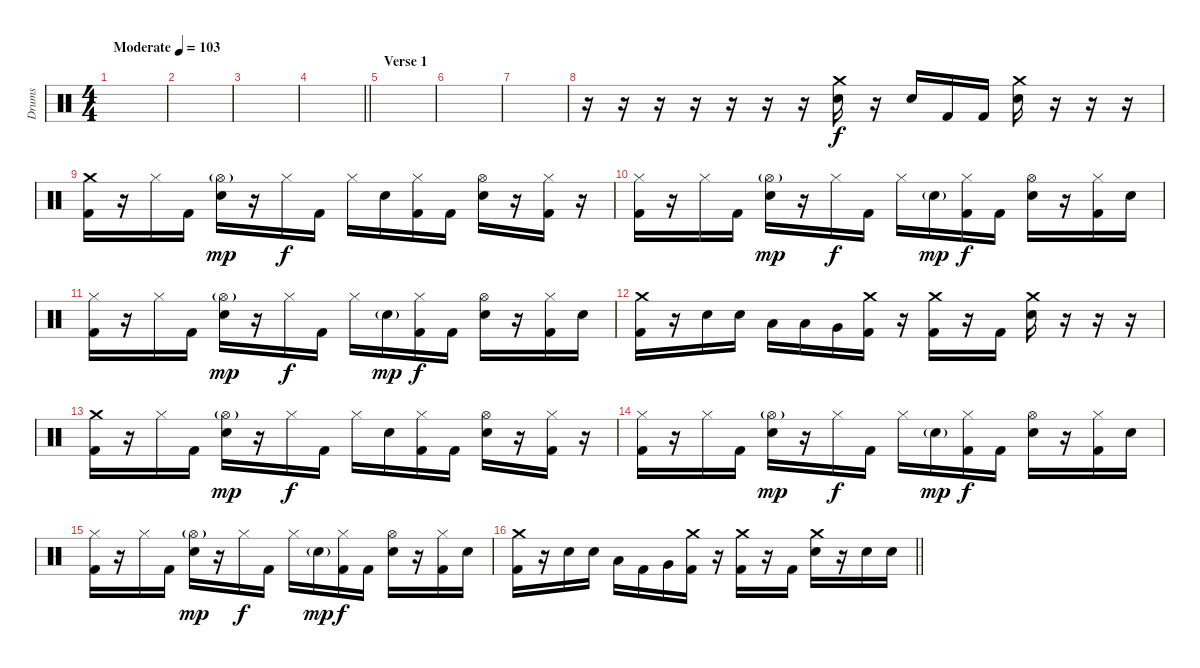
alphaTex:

\track ("Drums" "Drums") {instrument percussion}
\staff {score}
\articulation defaults
\ts (4 4)
\tempo (103 "Moderate")
\clef neutral
\ks c
|
|
|
\barLineRight lightlight
|
\section ("" "Verse 1")
|
|
|
r.16 r.16 r.16 r.16 r.16 r.16 r.16 ("Crash medium (hit)" "Electric Snare (hit)").16 r.16 "Electric Snare (hit)".16 "Kick (hit) 2".16 "Kick (hit) 2".16 ("Crash medium (hit)" "Electric Snare (hit)").16 r.16 r.16 r.16 |
("Crash medium (hit)" "Kick (hit) 2").16 r.16 "Hi-Hat (closed)".16 "Kick (hit) 2".16 ("Hi-Hat (open)"{g} "Electric Snare (hit)").16{dy mp} r.16 "Hi-Hat (closed)".16{dy f} "Kick (hit) 2".16 "Hi-Hat (closed)".16 "Electric Snare (hit)".16 ("Hi-Hat (closed)" "Kick (hit) 2").16 "Kick (hit) 2".16 ("Hi-Hat (open)" "Electric Snare (hit)").16 r.16 ("Hi-Hat (closed)" "Kick (hit) 2").16 r.16 |
("Hi-Hat (closed)" "Kick (hit) 2").16 r.16 "Hi-Hat (closed)".16 "Kick (hit) 2".16 ("Hi-Hat (open)"{g} "Electric Snare (hit)").16{dy mp} r.16 "Hi-Hat (closed)".16{dy f} "Kick (hit) 2".16 "Hi-Hat (closed)".16 "Electric Snare (hit)"{g}.16{dy mp} ("Hi-Hat (closed)" "Kick (hit) 2").16{dy f} "Kick (hit) 2".16 ("Hi-Hat (open)" "Electric Snare (hit)").16 r.16 ("Hi-Hat (closed)" "Kick (hit) 2").16 "Electric Snare (hit)".16 |
("Hi-Hat (closed)" "Kick (hit) 2").16 r.16 "Hi-Hat (closed)".16 "Kick (hit) 2".16 ("Hi-Hat (open)"{g} "Electric Snare (hit)").16{dy mp} r.16 "Hi-Hat (closed)".16{dy f} "Kick (hit) 2".16 "Hi-Hat (closed)".16 "Electric Snare (hit)"{g}.16{dy mp} ("Hi-Hat (closed)" "Kick (hit) 2").16{dy f} "Kick (hit) 2".16 ("Hi-Hat (open)" "Electric Snare (hit)").16 r.16 ("Hi-Hat (closed)" "Kick (hit) 2").16 "Electric Snare (hit)".16 |
("Crash medium (hit)" "Kick (hit) 2").16 r.16 "Electric Snare (hit)".16 "Electric Snare (hit)".16 "Low Tom (hit)".16 "Low Tom (hit)".16 "Very Low Tom (hit)".16 ("Crash medium (hit)" "Kick (hit) 2").16 r.16 ("Crash medium (hit)" "Kick (hit) 2").16 r.16 "Kick (hit) 2".16 ("Crash medium (hit)" "Electric Snare (hit)").16 r.16 r.16 r.16 |
("Crash medium (hit)" "Kick (hit) 2").16 r.16 "Hi-Hat (closed)".16 "Kick (hit) 2".16 ("Hi-Hat (open)"{g} "Electric Snare (hit)").16{dy mp} r.16 "Hi-Hat (closed)".16{dy f} "Kick (hit) 2".16 "Hi-Hat (closed)".16 "Electric Snare (hit)".16 ("Hi-Hat (closed)" "Kick (hit) 2").16 "Kick (hit) 2".16 ("Hi-Hat (open)" "Electric Snare (hit)").16 r.16 ("Hi-Hat (closed)" "Kick (hit) 2").16 r.16 |
("Hi-Hat (closed)" "Kick (hit) 2").16 r.16 "Hi-Hat (closed)".16 "Kick (hit) 2".16 ("Hi-Hat (open)"{g} "Electric Snare (hit)").16{dy mp} r.16 "Hi-Hat (closed)".16{dy f} "Kick (hit) 2".16 "Hi-Hat (closed)".16 "Electric Snare (hit)"{g}.16{dy mp} ("Hi-Hat (closed)" "Kick (hit) 2").16{dy f} "Kick (hit) 2".16 ("Hi-Hat (open)" "Electric Snare (hit)").16 r.16 ("Hi-Hat (closed)" "Kick (hit) 2").16 "Electric Snare (hit)".16 |
("Hi-Hat (closed)" "Kick (hit) 2").16 r.16 "Hi-Hat (closed)".16 "Kick (hit) 2".16 ("Hi-Hat (open)"{g} "Electric Snare (hit)").16{dy mp} r.16 "Hi-Hat (closed)".16{dy f} "Kick (hit) 2".16 "Hi-Hat (closed)".16 "Electric Snare (hit)"{g}.16{dy mp} ("Hi-Hat (closed)" "Kick (hit) 2").16{dy f} "Kick (hit) 2".16 ("Hi-Hat (open)" "Electric Snare (hit)").16 r.16 ("Hi-Hat (closed)" "Kick (hit) 2").16 "Electric Snare (hit)".16 |
\barLineRight lightlight
("Crash medium (hit)" "Kick (hit) 2").16 r.16 "Electric Snare (hit)".16 "Electric Snare (hit)".16 "Low Tom (hit)".16 "Kick (hit) 2".16 "Very Low Tom (hit)".16 ("Crash medium (hit)" "Kick (hit) 2").16 r.16 ("Crash medium (hit)" "Kick (hit) 2").16 r.16 "Kick (hit) 2".16 ("Crash medium (hit)" "Electric Snare (hit)").16 r.16 "Electric Snare (hit)".16 "Electric Snare (hit)".16
